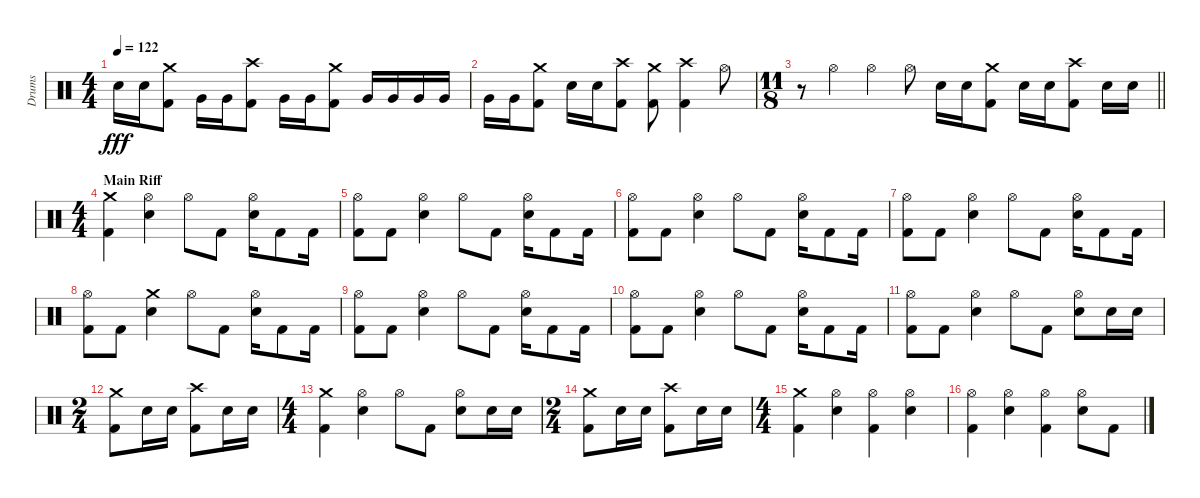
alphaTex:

\track ("Drums" "Drums") {instrument percussion}
\staff {score}
\articulation defaults
\ts (4 4)
\tempo 122
\clef neutral
\ks c "Electric Snare (hit)".16{dy fff} "Electric Snare (hit)".16
("Crash medium (hit)" "Kick (hit) 2").8 "Very Low Tom (hit)".16 "Very Low Tom (hit)".16 ("Crash high (hit)" "Kick (hit) 2").8 "Very Low Tom (hit)".16 "Very Low Tom (hit)".16 ("Crash medium (hit)" "Kick (hit) 2").8 "Very Low Tom (hit)".16 "Very Low Tom (hit)".16 "Very Low Tom (hit)".16 "Very Low Tom (hit)".16 |
"Very Low Tom (hit)".16 "Very Low Tom (hit)".16 ("Crash medium (hit)" "Kick (hit) 2").8 "Electric Snare (hit)".16 "Electric Snare (hit)".16 ("Crash high (hit)" "Kick (hit) 2").8 ("Crash medium (hit)" "Kick (hit) 2").8 ("Crash high (hit)" "Kick (hit) 2").4 "Hi-Hat (open)".8 |
\ts (11 8)
\barLineRight lightlight
r.8 "Hi-Hat (open)".4 "Hi-Hat (open)".4 "Hi-Hat (open)".8 "Electric Snare (hit)".16 "Electric Snare (hit)".16 ("Crash medium (hit)" "Kick (hit) 2").8 "Electric Snare (hit)".16 "Electric Snare (hit)".16 ("Crash high (hit)" "Kick (hit) 2").8 "Electric Snare (hit)".16 "Electric Snare (hit)".16 |
\ts (4 4)
\section ("" "Main Riff")
("Crash medium (hit)" "Kick (hit) 2").4 ("Hi-Hat (open)" "Electric Snare (hit)").4 "Hi-Hat (open)".8 "Kick (hit) 2".8 ("Hi-Hat (open)" "Electric Snare (hit)").16 "Kick (hit) 2".8 "Kick (hit) 2".16 |
("Hi-Hat (open)" "Kick (hit) 2").8 "Kick (hit) 2".8 ("Hi-Hat (open)" "Electric Snare (hit)").4 "Hi-Hat (open)".8 "Kick (hit) 2".8 ("Hi-Hat (open)" "Electric Snare (hit)").16 "Kick (hit) 2".8 "Kick (hit) 2".16 |
("Hi-Hat (open)" "Kick (hit) 2").8 "Kick (hit) 2".8 ("Hi-Hat (open)" "Electric Snare (hit)").4 "Hi-Hat (open)".8 "Kick (hit) 2".8 ("Hi-Hat (open)" "Electric Snare (hit)").16 "Kick (hit) 2".8 "Kick (hit) 2".16 |
("Hi-Hat (open)" "Kick (hit) 2").8 "Kick (hit) 2".8 ("Hi-Hat (open)" "Electric Snare (hit)").4 "Hi-Hat (open)".8 "Kick (hit) 2".8 ("Hi-Hat (open)" "Electric Snare (hit)").16 "Kick (hit) 2".8 "Kick (hit) 2".16 |
("Hi-Hat (open)" "Kick (hit) 2").8 "Kick (hit) 2".8 ("Crash medium (hit)" "Electric Snare (hit)").4 "Hi-Hat (open)".8 "Kick (hit) 2".8 ("Hi-Hat (open)" "Electric Snare (hit)").16 "Kick (hit) 2".8 "Kick (hit) 2".16 |
("Hi-Hat (open)" "Kick (hit) 2").8 "Kick (hit) 2".8 ("Hi-Hat (open)" "Electric Snare (hit)").4 "Hi-Hat (open)".8 "Kick (hit) 2".8 ("Hi-Hat (open)" "Electric Snare (hit)").16 "Kick (hit) 2".8 "Kick (hit) 2".16 |
("Hi-Hat (open)" "Kick (hit) 2").8 "Kick (hit) 2".8 ("Hi-Hat (open)" "Electric Snare (hit)").4 "Hi-Hat (open)".8 "Kick (hit) 2".8 ("Hi-Hat (open)" "Electric Snare (hit)").16 "Kick (hit) 2".8 "Kick (hit) 2".16 |
("Hi-Hat (open)" "Kick (hit) 2").8 "Kick (hit) 2".8 ("Hi-Hat (open)" "Electric Snare (hit)").4 "Hi-Hat (open)".8 "Kick (hit) 2".8 ("Hi-Hat (open)" "Electric Snare (hit)").8 "Electric Snare (hit)".16 "Electric Snare (hit)".16 |
\ts (2 4)
("Crash medium (hit)" "Kick (hit) 2").8 "Electric Snare (hit)".16 "Electric Snare (hit)".16 ("Crash high (hit)" "Kick (hit) 2").8 "Electric Snare (hit)".16 "Electric Snare (hit)".16 |
\ts (4 4)
("Crash medium (hit)" "Kick (hit) 2").4 ("Hi-Hat (open)" "Electric Snare (hit)").4 "Hi-Hat (open)".8 "Kick (hit) 2".8 ("Hi-Hat (open)" "Electric Snare (hit)").8 "Electric Snare (hit)".16 "Electric Snare (hit)".16 |
\ts (2 4)
("Crash medium (hit)" "Kick (hit) 2").8 "Electric Snare (hit)".16 "Electric Snare (hit)".16 ("Crash high (hit)" "Kick (hit) 2").8 "Electric Snare (hit)".16 "Electric Snare (hit)".16 |
\ts (4 4)
("Crash medium (hit)" "Kick (hit) 2").4 ("Hi-Hat (open)" "Electric Snare (hit)").4 ("Hi-Hat (open)" "Kick (hit) 2").4 ("Hi-Hat (open)" "Electric Snare (hit)").4 |
("Hi-Hat (open)" "Kick (hit) 2").4 ("Hi-Hat (open)" "Electric Snare (hit)").4 ("Hi-Hat (open)" "Kick (hit) 2").4 ("Hi-Hat (open)" "Electric Snare (hit)").8 "Kick (hit) 2".8
